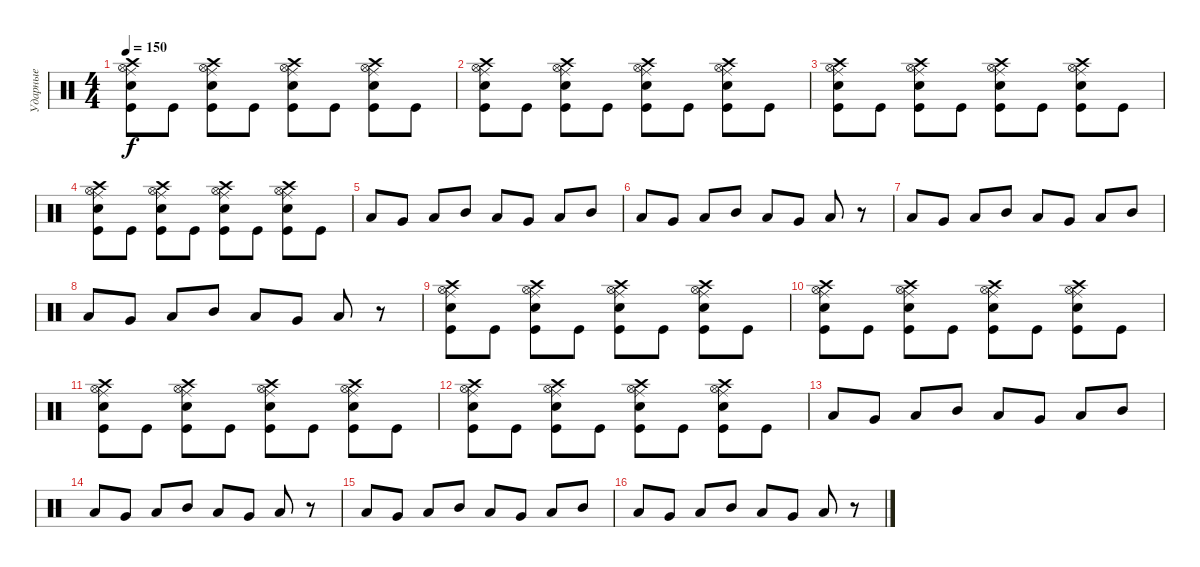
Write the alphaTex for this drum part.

\track ("Ударные" "Ударные") {instrument percussion}
\staff {score}
\articulation defaults
\ts (4 4)
\tempo 150
\clef neutral
\ks c
("Crash high (hit)" "Ride (middle)" "Hi-Hat (open)" "Kick (hit)" "Snare (hit) 2").8{dy f} "Kick (hit)".8 ("Crash high (hit)" "Ride (middle)" "Hi-Hat (open)" "Kick (hit)" "Snare (hit) 2").8 "Kick (hit)".8 ("Crash high (hit)" "Ride (middle)" "Hi-Hat (open)" "Kick (hit)" "Snare (hit) 2").8 "Kick (hit)".8 ("Crash high (hit)" "Ride (middle)" "Hi-Hat (open)" "Kick (hit)" "Snare (hit) 2").8 "Kick (hit)".8 |
("Crash high (hit)" "Ride (middle)" "Hi-Hat (open)" "Kick (hit)" "Snare (hit) 2").8 "Kick (hit)".8 ("Crash high (hit)" "Ride (middle)" "Hi-Hat (open)" "Kick (hit)" "Snare (hit) 2").8 "Kick (hit)".8 ("Crash high (hit)" "Ride (middle)" "Hi-Hat (open)" "Kick (hit)" "Snare (hit) 2").8 "Kick (hit)".8 ("Crash high (hit)" "Ride (middle)" "Hi-Hat (open)" "Kick (hit)" "Snare (hit) 2").8 "Kick (hit)".8 |
("Crash high (hit)" "Ride (middle)" "Hi-Hat (open)" "Kick (hit)" "Snare (hit) 2").8 "Kick (hit)".8 ("Crash high (hit)" "Ride (middle)" "Hi-Hat (open)" "Kick (hit)" "Snare (hit) 2").8 "Kick (hit)".8 ("Crash high (hit)" "Ride (middle)" "Hi-Hat (open)" "Kick (hit)" "Snare (hit) 2").8 "Kick (hit)".8 ("Crash high (hit)" "Ride (middle)" "Hi-Hat (open)" "Kick (hit)" "Snare (hit) 2").8 "Kick (hit)".8 |
("Crash high (hit)" "Ride (middle)" "Hi-Hat (open)" "Kick (hit)" "Snare (hit) 2").8 "Kick (hit)".8 ("Crash high (hit)" "Ride (middle)" "Hi-Hat (open)" "Kick (hit)" "Snare (hit) 2").8 "Kick (hit)".8 ("Crash high (hit)" "Ride (middle)" "Hi-Hat (open)" "Kick (hit)" "Snare (hit) 2").8 "Kick (hit)".8 ("Crash high (hit)" "Ride (middle)" "Hi-Hat (open)" "Kick (hit)" "Snare (hit) 2").8 "Kick (hit)".8 |
"Low Floor Tom (hit)".8 "Very Low Tom (hit)".8 "Low Tom (hit)".8 "Mid Tom (hit)".8 "Low Floor Tom (hit)".8 "Very Low Tom (hit)".8 "Low Tom (hit)".8 "Mid Tom (hit)".8 |
"Low Floor Tom (hit)".8 "Very Low Tom (hit)".8 "Low Tom (hit)".8 "Mid Tom (hit)".8 "Low Floor Tom (hit)".8 "Very Low Tom (hit)".8 "Low Tom (hit)".8 r.8 |
"Low Floor Tom (hit)".8 "Very Low Tom (hit)".8 "Low Tom (hit)".8 "Mid Tom (hit)".8 "Low Floor Tom (hit)".8 "Very Low Tom (hit)".8 "Low Tom (hit)".8 "Mid Tom (hit)".8 |
"Low Floor Tom (hit)".8 "Very Low Tom (hit)".8 "Low Tom (hit)".8 "Mid Tom (hit)".8 "Low Floor Tom (hit)".8 "Very Low Tom (hit)".8 "Low Tom (hit)".8 r.8 |
("Crash high (hit)" "Ride (middle)" "Hi-Hat (open)" "Kick (hit)" "Snare (hit) 2").8 "Kick (hit)".8 ("Crash high (hit)" "Ride (middle)" "Hi-Hat (open)" "Kick (hit)" "Snare (hit) 2").8 "Kick (hit)".8 ("Crash high (hit)" "Ride (middle)" "Hi-Hat (open)" "Kick (hit)" "Snare (hit) 2").8 "Kick (hit)".8 ("Crash high (hit)" "Ride (middle)" "Hi-Hat (open)" "Kick (hit)" "Snare (hit) 2").8 "Kick (hit)".8 |
("Crash high (hit)" "Ride (middle)" "Hi-Hat (open)" "Kick (hit)" "Snare (hit) 2").8 "Kick (hit)".8 ("Crash high (hit)" "Ride (middle)" "Hi-Hat (open)" "Kick (hit)" "Snare (hit) 2").8 "Kick (hit)".8 ("Crash high (hit)" "Ride (middle)" "Hi-Hat (open)" "Kick (hit)" "Snare (hit) 2").8 "Kick (hit)".8 ("Crash high (hit)" "Ride (middle)" "Hi-Hat (open)" "Kick (hit)" "Snare (hit) 2").8 "Kick (hit)".8 |
("Crash high (hit)" "Ride (middle)" "Hi-Hat (open)" "Kick (hit)" "Snare (hit) 2").8 "Kick (hit)".8 ("Crash high (hit)" "Ride (middle)" "Hi-Hat (open)" "Kick (hit)" "Snare (hit) 2").8 "Kick (hit)".8 ("Crash high (hit)" "Ride (middle)" "Hi-Hat (open)" "Kick (hit)" "Snare (hit) 2").8 "Kick (hit)".8 ("Crash high (hit)" "Ride (middle)" "Hi-Hat (open)" "Kick (hit)" "Snare (hit) 2").8 "Kick (hit)".8 |
("Crash high (hit)" "Ride (middle)" "Hi-Hat (open)" "Kick (hit)" "Snare (hit) 2").8 "Kick (hit)".8 ("Crash high (hit)" "Ride (middle)" "Hi-Hat (open)" "Kick (hit)" "Snare (hit) 2").8 "Kick (hit)".8 ("Crash high (hit)" "Ride (middle)" "Hi-Hat (open)" "Kick (hit)" "Snare (hit) 2").8 "Kick (hit)".8 ("Crash high (hit)" "Ride (middle)" "Hi-Hat (open)" "Kick (hit)" "Snare (hit) 2").8 "Kick (hit)".8 |
"Low Floor Tom (hit)".8 "Very Low Tom (hit)".8 "Low Tom (hit)".8 "Mid Tom (hit)".8 "Low Floor Tom (hit)".8 "Very Low Tom (hit)".8 "Low Tom (hit)".8 "Mid Tom (hit)".8 |
"Low Floor Tom (hit)".8 "Very Low Tom (hit)".8 "Low Tom (hit)".8 "Mid Tom (hit)".8 "Low Floor Tom (hit)".8 "Very Low Tom (hit)".8 "Low Tom (hit)".8 r.8 |
"Low Floor Tom (hit)".8 "Very Low Tom (hit)".8 "Low Tom (hit)".8 "Mid Tom (hit)".8 "Low Floor Tom (hit)".8 "Very Low Tom (hit)".8 "Low Tom (hit)".8 "Mid Tom (hit)".8 |
"Low Floor Tom (hit)".8 "Very Low Tom (hit)".8 "Low Tom (hit)".8 "Mid Tom (hit)".8 "Low Floor Tom (hit)".8 "Very Low Tom (hit)".8 "Low Tom (hit)".8 r.8
